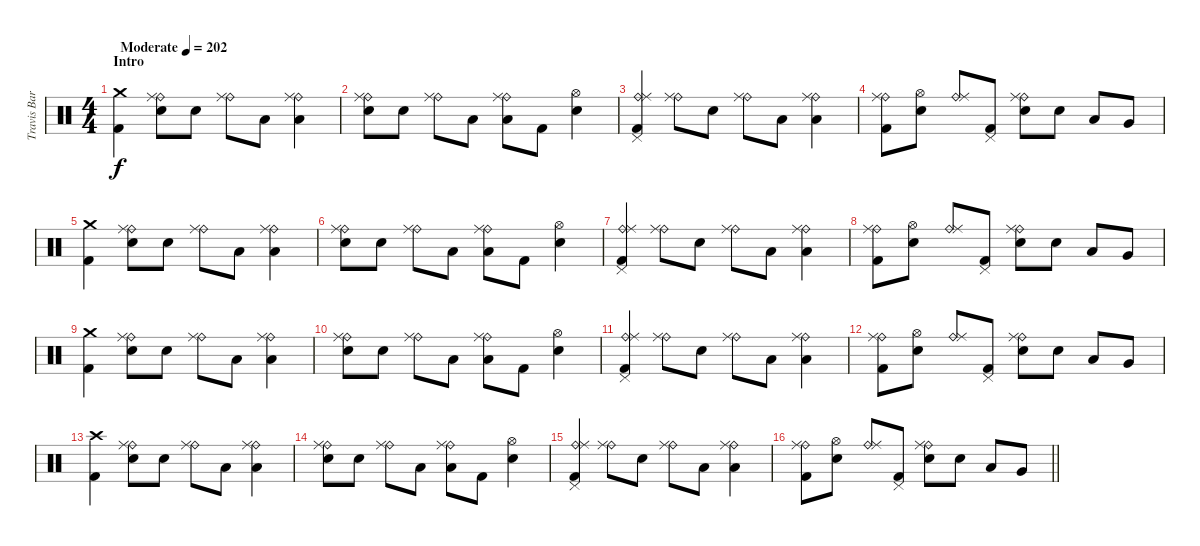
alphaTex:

\track ("Travis Barker - Drums" "Travis Bar") {instrument percussion}
\staff {score}
\articulation defaults
\ts (4 4)
\section ("" "Intro")
\tempo (202 "Moderate")
\clef neutral
\ks c
("Crash medium (hit)" "Kick (hit) 2").4{dy f volume 9 balance 2} ("Ride (bell)" "Ride (middle)" "Electric Snare (hit)").8 "Electric Snare (hit)".8 ("Ride (bell)" "Ride (middle)").8 "Low Tom (hit)".8 ("Ride (bell)" "Ride (middle)" "Low Tom (hit)").4 |
("Ride (bell)" "Ride (middle)" "Electric Snare (hit)").8 "Electric Snare (hit)".8 ("Ride (bell)" "Ride (middle)").8 "Low Tom (hit)".8 ("Ride (bell)" "Ride (middle)" "Low Tom (hit)").8 "Kick (hit) 2".8 ("Hi-Hat (open)" "Electric Snare (hit)").4 |
("Ride (bell)" "Ride (middle)" "Pedal Hi-Hat (hit)" "Kick (hit) 2").4 ("Ride (bell)" "Ride (middle)").8 "Electric Snare (hit)".8 ("Ride (bell)" "Ride (middle)").8 "Low Tom (hit)".8 ("Ride (bell)" "Ride (middle)" "Low Tom (hit)").4 |
("Ride (bell)" "Ride (middle)" "Kick (hit) 2").8 ("Hi-Hat (open)" "Electric Snare (hit)").8 ("Ride (bell)" "Ride (middle)").8 ("Pedal Hi-Hat (hit)" "Kick (hit) 2").8 ("Ride (bell)" "Ride (middle)" "Electric Snare (hit)").8 "Electric Snare (hit)".8 "Low Tom (hit)".8 "Very Low Tom (hit)".8 |
("Crash medium (hit)" "Kick (hit) 2").4 ("Ride (bell)" "Ride (middle)" "Electric Snare (hit)").8 "Electric Snare (hit)".8 ("Ride (bell)" "Ride (middle)").8 "Low Tom (hit)".8 ("Ride (bell)" "Ride (middle)" "Low Tom (hit)").4 |
("Ride (bell)" "Ride (middle)" "Electric Snare (hit)").8 "Electric Snare (hit)".8 ("Ride (bell)" "Ride (middle)").8 "Low Tom (hit)".8 ("Ride (bell)" "Ride (middle)" "Low Tom (hit)").8 "Kick (hit) 2".8 ("Hi-Hat (open)" "Electric Snare (hit)").4 |
("Ride (bell)" "Ride (middle)" "Pedal Hi-Hat (hit)" "Kick (hit) 2").4 ("Ride (bell)" "Ride (middle)").8 "Electric Snare (hit)".8 ("Ride (bell)" "Ride (middle)").8 "Low Tom (hit)".8 ("Ride (bell)" "Ride (middle)" "Low Tom (hit)").4 |
("Ride (bell)" "Ride (middle)" "Kick (hit) 2").8 ("Hi-Hat (open)" "Electric Snare (hit)").8 ("Ride (bell)" "Ride (middle)").8 ("Pedal Hi-Hat (hit)" "Kick (hit) 2").8 ("Ride (bell)" "Ride (middle)" "Electric Snare (hit)").8 "Electric Snare (hit)".8 "Low Tom (hit)".8 "Very Low Tom (hit)".8 |
("Crash medium (hit)" "Kick (hit) 2").4{volume 12 balance 8} ("Ride (bell)" "Ride (middle)" "Electric Snare (hit)").8 "Electric Snare (hit)".8 ("Ride (bell)" "Ride (middle)").8 "Low Tom (hit)".8 ("Ride (bell)" "Ride (middle)" "Low Tom (hit)").4 |
("Ride (bell)" "Ride (middle)" "Electric Snare (hit)").8 "Electric Snare (hit)".8 ("Ride (bell)" "Ride (middle)").8 "Low Tom (hit)".8 ("Ride (bell)" "Ride (middle)" "Low Tom (hit)").8 "Kick (hit) 2".8 ("Hi-Hat (open)" "Electric Snare (hit)").4 |
("Ride (bell)" "Ride (middle)" "Pedal Hi-Hat (hit)" "Kick (hit) 2").4 ("Ride (bell)" "Ride (middle)").8 "Electric Snare (hit)".8 ("Ride (bell)" "Ride (middle)").8 "Low Tom (hit)".8 ("Ride (bell)" "Ride (middle)" "Low Tom (hit)").4 |
("Ride (bell)" "Ride (middle)" "Kick (hit) 2").8 ("Hi-Hat (open)" "Electric Snare (hit)").8 ("Ride (bell)" "Ride (middle)").8 ("Pedal Hi-Hat (hit)" "Kick (hit) 2").8 ("Ride (bell)" "Ride (middle)" "Electric Snare (hit)").8 "Electric Snare (hit)".8 "Low Tom (hit)".8 "Very Low Tom (hit)".8 |
("Crash high (hit)" "Kick (hit) 2").4 ("Ride (bell)" "Ride (middle)" "Electric Snare (hit)").8 "Electric Snare (hit)".8 ("Ride (bell)" "Ride (middle)").8 "Low Tom (hit)".8 ("Ride (bell)" "Ride (middle)" "Low Tom (hit)").4 |
("Ride (bell)" "Ride (middle)" "Electric Snare (hit)").8 "Electric Snare (hit)".8 ("Ride (bell)" "Ride (middle)").8 "Low Tom (hit)".8 ("Ride (bell)" "Ride (middle)" "Low Tom (hit)").8 "Kick (hit) 2".8 ("Hi-Hat (open)" "Electric Snare (hit)").4 |
("Ride (bell)" "Ride (middle)" "Pedal Hi-Hat (hit)" "Kick (hit) 2").4 ("Ride (bell)" "Ride (middle)").8 "Electric Snare (hit)".8 ("Ride (bell)" "Ride (middle)").8 "Low Tom (hit)".8 ("Ride (bell)" "Ride (middle)" "Low Tom (hit)").4 |
\barLineRight lightlight
("Ride (bell)" "Ride (middle)" "Kick (hit) 2").8 ("Hi-Hat (open)" "Electric Snare (hit)").8 ("Ride (bell)" "Ride (middle)").8 ("Pedal Hi-Hat (hit)" "Kick (hit) 2").8 ("Ride (bell)" "Ride (middle)" "Electric Snare (hit)").8 "Electric Snare (hit)".8 "Low Tom (hit)".8 "Very Low Tom (hit)".8
